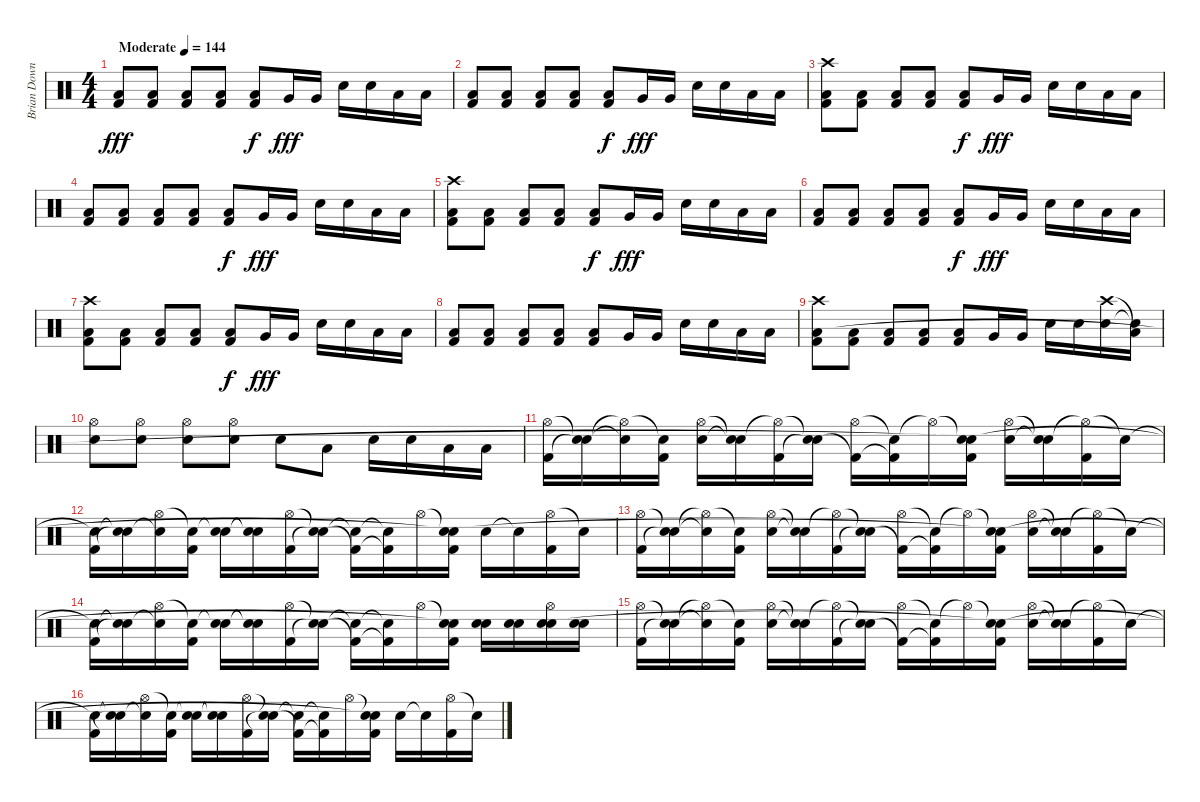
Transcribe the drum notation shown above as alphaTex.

\track ("Brian Downey" "Brian Down") {instrument percussion}
\staff {score}
\articulation defaults
\ts (4 4)
\tempo (144 "Moderate")
\clef neutral
\ks c
("Kick (hit) 2" "Low Floor Tom (hit)").8{dy fff} ("Kick (hit) 2" "Low Floor Tom (hit)").8 ("Kick (hit) 2" "Low Floor Tom (hit)").8 ("Kick (hit) 2" "Low Floor Tom (hit)").8 ("Kick (hit) 2" "Low Floor Tom (hit)").8{dy f} "Very Low Tom (hit)".16{dy fff} "Very Low Tom (hit)".16 "Electric Snare (hit)".16 "Electric Snare (hit)".16 "Low Floor Tom (hit)".16 "Low Floor Tom (hit)".16 |
("Kick (hit) 2" "Low Floor Tom (hit)").8 ("Kick (hit) 2" "Low Floor Tom (hit)").8 ("Kick (hit) 2" "Low Floor Tom (hit)").8 ("Kick (hit) 2" "Low Floor Tom (hit)").8 ("Kick (hit) 2" "Low Floor Tom (hit)").8{dy f} "Very Low Tom (hit)".16{dy fff} "Very Low Tom (hit)".16 "Electric Snare (hit)".16 "Electric Snare (hit)".16 "Low Floor Tom (hit)".16 "Low Floor Tom (hit)".16 |
("Crash high (hit)" "Kick (hit) 2" "Low Floor Tom (hit)").8 ("Kick (hit) 2" "Low Floor Tom (hit)").8 ("Kick (hit) 2" "Low Floor Tom (hit)").8 ("Kick (hit) 2" "Low Floor Tom (hit)").8 ("Kick (hit) 2" "Low Floor Tom (hit)").8{dy f} "Very Low Tom (hit)".16{dy fff} "Very Low Tom (hit)".16 "Electric Snare (hit)".16 "Electric Snare (hit)".16 "Low Floor Tom (hit)".16 "Low Floor Tom (hit)".16 |
("Kick (hit) 2" "Low Floor Tom (hit)").8 ("Kick (hit) 2" "Low Floor Tom (hit)").8 ("Kick (hit) 2" "Low Floor Tom (hit)").8 ("Kick (hit) 2" "Low Floor Tom (hit)").8 ("Kick (hit) 2" "Low Floor Tom (hit)").8{dy f} "Very Low Tom (hit)".16{dy fff} "Very Low Tom (hit)".16 "Electric Snare (hit)".16 "Electric Snare (hit)".16 "Low Floor Tom (hit)".16 "Low Floor Tom (hit)".16 |
("Crash high (hit)" "Kick (hit) 2" "Low Floor Tom (hit)").8 ("Kick (hit) 2" "Low Floor Tom (hit)").8 ("Kick (hit) 2" "Low Floor Tom (hit)").8 ("Kick (hit) 2" "Low Floor Tom (hit)").8 ("Kick (hit) 2" "Low Floor Tom (hit)").8{dy f} "Very Low Tom (hit)".16{dy fff} "Very Low Tom (hit)".16 "Electric Snare (hit)".16 "Electric Snare (hit)".16 "Low Floor Tom (hit)".16 "Low Floor Tom (hit)".16 |
("Kick (hit) 2" "Low Floor Tom (hit)").8 ("Kick (hit) 2" "Low Floor Tom (hit)").8 ("Kick (hit) 2" "Low Floor Tom (hit)").8 ("Kick (hit) 2" "Low Floor Tom (hit)").8 ("Kick (hit) 2" "Low Floor Tom (hit)").8{dy f} "Very Low Tom (hit)".16{dy fff} "Very Low Tom (hit)".16 "Electric Snare (hit)".16 "Electric Snare (hit)".16 "Low Floor Tom (hit)".16 "Low Floor Tom (hit)".16 |
("Crash high (hit)" "Kick (hit) 2" "Low Floor Tom (hit)").8 ("Kick (hit) 2" "Low Floor Tom (hit)").8 ("Kick (hit) 2" "Low Floor Tom (hit)").8 ("Kick (hit) 2" "Low Floor Tom (hit)").8 ("Kick (hit) 2" "Low Floor Tom (hit)").8{dy f} "Very Low Tom (hit)".16{dy fff} "Very Low Tom (hit)".16 "Electric Snare (hit)".16 "Electric Snare (hit)".16 "Low Floor Tom (hit)".16 "Low Floor Tom (hit)".16 |
("Kick (hit) 2" "Low Floor Tom (hit)").8 ("Kick (hit) 2" "Low Floor Tom (hit)").8 ("Kick (hit) 2" "Low Floor Tom (hit)").8 ("Kick (hit) 2" "Low Floor Tom (hit)").8 ("Kick (hit) 2" "Low Floor Tom (hit)").8 "Very Low Tom (hit)".16 "Very Low Tom (hit)".16 "Electric Snare (hit)".16 "Electric Snare (hit)".16 "Low Floor Tom (hit)".16 "Low Floor Tom (hit)".16 |
("Crash high (hit)" "Kick (hit) 2" "Low Floor Tom (hit)").8 ("Kick (hit) 2" "Low Floor Tom (hit)").8 ("Kick (hit) 2" "Low Floor Tom (hit)").8 ("Kick (hit) 2" "Low Floor Tom (hit)").8 ("Kick (hit) 2" "Low Floor Tom (hit)").8 "Very Low Tom (hit)".16 "Very Low Tom (hit)".16 "Electric Snare (hit)".16 "Electric Snare (hit)".16 ("Crash high (hit)" "Electric Snare (hit)").16 ("Low Floor Tom (hit)"{t} "Snare (hit)"{t}).16 |
("Hi-Hat (open)" "Electric Snare (hit)").8 ("Hi-Hat (open)" "Electric Snare (hit)").8 ("Hi-Hat (open)" "Electric Snare (hit)").8 ("Hi-Hat (open)" "Electric Snare (hit)").8 "Electric Snare (hit)".8 "Low Floor Tom (hit)".8 "Electric Snare (hit)".16 "Electric Snare (hit)".16 "Low Floor Tom (hit)".16 "Low Floor Tom (hit)".16 |
("Hi-Hat (open)" "Kick (hit) 2").16 ("Snare (hit)"{t} "Snare (hit)"{t}).16 ("Hi-Hat (open)"{t} "Snare (hit)"{t}).16 ("Snare (hit)"{t} "Kick (hit) 2").16 ("Hi-Hat (open)" "Electric Snare (hit)").16 ("Snare (hit)"{t} "Snare (hit)"{t}).16 ("Hi-Hat (open)"{t} "Kick (hit) 2").16 ("Snare (hit)"{t} "Snare (hit)"{t}).16 ("Hi-Hat (open)" "Kick (hit) 2"{t}).16 ("Snare (hit)"{t} "Kick (hit) 2"{t}).16 "Hi-Hat (open)"{t}.16 ("Snare (hit)"{t} "Kick (hit) 2" "Snare (hit)"{t}).16 ("Hi-Hat (open)" "Electric Snare (hit)").16 ("Snare (hit)"{t} "Snare (hit)"{t}).16 ("Hi-Hat (open)"{t} "Kick (hit) 2").16 "Snare (hit)"{t}.16 |
("Snare (hit)"{t} "Kick (hit) 2").16 ("Snare (hit)"{t} "Snare (hit)"{t}).16 ("Hi-Hat (open)" "Snare (hit)"{t}).16 ("Snare (hit)"{t} "Kick (hit) 2").16 ("Snare (hit)"{t} "Electric Snare (hit)").16 ("Snare (hit)"{t} "Snare (hit)"{t}).16 ("Hi-Hat (open)" "Kick (hit) 2").16 ("Snare (hit)"{t} "Snare (hit)"{t}).16 ("Snare (hit)"{t} "Kick (hit) 2"{t}).16 ("Snare (hit)"{t} "Kick (hit) 2"{t}).16 "Hi-Hat (open)".16 ("Snare (hit)"{t} "Kick (hit) 2" "Snare (hit)"{t}).16 "Electric Snare (hit)".16 "Snare (hit)"{t}.16 ("Hi-Hat (open)" "Kick (hit) 2").16 "Snare (hit)"{t}.16 |
("Hi-Hat (open)" "Kick (hit) 2").16 ("Snare (hit)"{t} "Snare (hit)"{t}).16 ("Hi-Hat (open)"{t} "Snare (hit)"{t}).16 ("Snare (hit)"{t} "Kick (hit) 2").16 ("Hi-Hat (open)" "Electric Snare (hit)").16 ("Snare (hit)"{t} "Snare (hit)"{t}).16 ("Hi-Hat (open)"{t} "Kick (hit) 2").16 ("Snare (hit)"{t} "Snare (hit)"{t}).16 ("Hi-Hat (open)" "Kick (hit) 2"{t}).16 ("Snare (hit)"{t} "Kick (hit) 2"{t}).16 "Hi-Hat (open)"{t}.16 ("Snare (hit)"{t} "Kick (hit) 2" "Snare (hit)"{t}).16 ("Hi-Hat (open)" "Electric Snare (hit)").16 ("Snare (hit)"{t} "Snare (hit)"{t}).16 ("Hi-Hat (open)"{t} "Kick (hit) 2").16 "Snare (hit)"{t}.16 |
("Snare (hit)"{t} "Kick (hit) 2").16 ("Snare (hit)"{t} "Snare (hit)"{t}).16 ("Hi-Hat (open)" "Snare (hit)"{t}).16 ("Snare (hit)"{t} "Kick (hit) 2").16 ("Snare (hit)"{t} "Electric Snare (hit)").16 ("Snare (hit)"{t} "Snare (hit)"{t}).16 ("Hi-Hat (open)" "Kick (hit) 2").16 ("Snare (hit)"{t} "Snare (hit)"{t}).16 ("Snare (hit)"{t} "Kick (hit) 2"{t}).16 ("Snare (hit)"{t} "Kick (hit) 2"{t}).16 "Hi-Hat (open)".16 ("Snare (hit)"{t} "Kick (hit) 2" "Snare (hit)"{t}).16 ("Electric Snare (hit)" "Snare (hit) 2").16 ("Electric Snare (hit)" "Snare (hit) 2").16 ("Hi-Hat (open)" "Electric Snare (hit)" "Snare (hit) 2").16 ("Electric Snare (hit)" "Snare (hit) 2").16 |
("Hi-Hat (open)" "Kick (hit) 2").16 ("Snare (hit)"{t} "Snare (hit)"{t}).16 ("Hi-Hat (open)"{t} "Snare (hit)"{t}).16 ("Snare (hit)"{t} "Kick (hit) 2").16 ("Hi-Hat (open)" "Electric Snare (hit)").16 ("Snare (hit)"{t} "Snare (hit)"{t}).16 ("Hi-Hat (open)"{t} "Kick (hit) 2").16 ("Snare (hit)"{t} "Snare (hit)"{t}).16 ("Hi-Hat (open)" "Kick (hit) 2"{t}).16 ("Snare (hit)"{t} "Kick (hit) 2"{t}).16 "Hi-Hat (open)"{t}.16 ("Snare (hit)"{t} "Kick (hit) 2" "Snare (hit)"{t}).16 ("Hi-Hat (open)" "Electric Snare (hit)").16 ("Snare (hit)"{t} "Snare (hit)"{t}).16 ("Hi-Hat (open)"{t} "Kick (hit) 2").16 "Snare (hit)"{t}.16 |
("Snare (hit)"{t} "Kick (hit) 2").16 ("Snare (hit)"{t} "Snare (hit)"{t}).16 ("Hi-Hat (open)" "Snare (hit)"{t}).16 ("Snare (hit)"{t} "Kick (hit) 2").16 ("Snare (hit)"{t} "Electric Snare (hit)").16 ("Snare (hit)"{t} "Snare (hit)"{t}).16 ("Hi-Hat (open)" "Kick (hit) 2").16 ("Snare (hit)"{t} "Snare (hit)"{t}).16 ("Snare (hit)"{t} "Kick (hit) 2"{t}).16 ("Snare (hit)"{t} "Kick (hit) 2"{t}).16 "Hi-Hat (open)".16 ("Snare (hit)"{t} "Kick (hit) 2" "Snare (hit)"{t}).16 "Electric Snare (hit)".16 "Snare (hit)"{t}.16 ("Hi-Hat (open)" "Kick (hit) 2").16 "Snare (hit)"{t}.16
